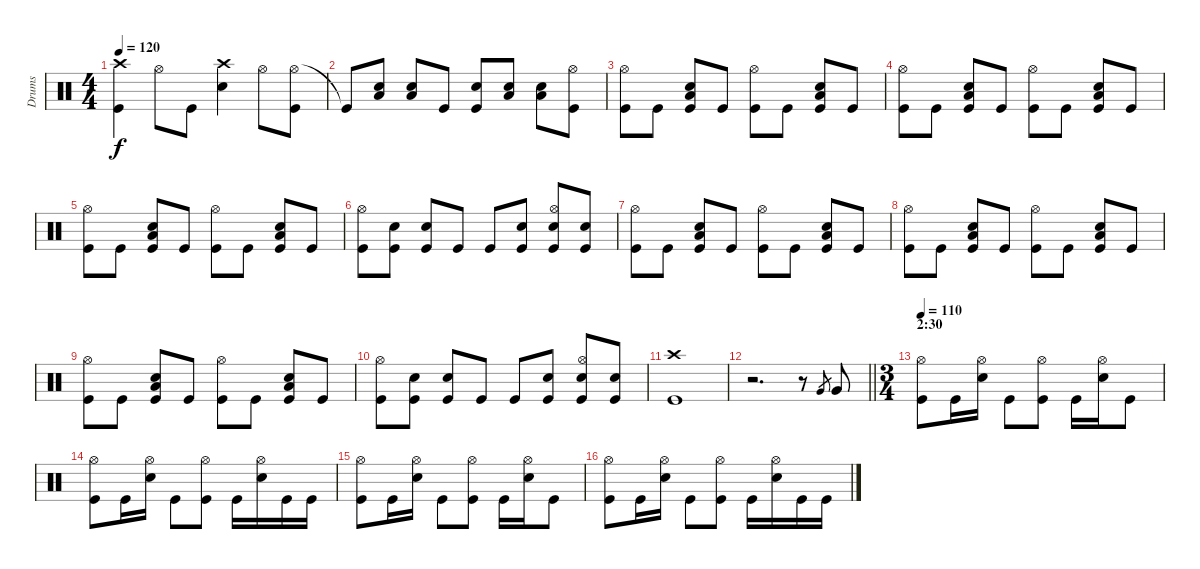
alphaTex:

\track ("Drums" "Drums") {instrument percussion}
\staff {score}
\articulation defaults
\ts (4 4)
\tempo 120
\clef neutral
\ks c
("Crash high (hit)" "Kick (hit)").4{dy f} "Hi-Hat (open)".8 "Kick (hit)".8 ("Crash high (hit)" "Electric Snare (hit)").4 "Hi-Hat (open)".8 ("Hi-Hat (open)" "Kick (hit)").8 |
"Kick (hit)"{t}.8 ("Low Floor Tom (hit)" "Electric Snare (hit)").8 ("Low Floor Tom (hit)" "Electric Snare (hit)").8 "Kick (hit)".8 ("Electric Snare (hit)" "Kick (hit)").8 ("Low Floor Tom (hit)" "Electric Snare (hit)").8 ("Low Floor Tom (hit)" "Electric Snare (hit)").8 ("Hi-Hat (open)" "Kick (hit)").8 |
("Hi-Hat (open)" "Kick (hit)").8 "Kick (hit)".8 ("Low Floor Tom (hit)" "Electric Snare (hit)" "Kick (hit)").8 "Kick (hit)".8 ("Hi-Hat (open)" "Kick (hit)").8 "Kick (hit)".8 ("Low Floor Tom (hit)" "Electric Snare (hit)" "Kick (hit)").8 "Kick (hit)".8 |
("Hi-Hat (open)" "Kick (hit)").8 "Kick (hit)".8 ("Low Floor Tom (hit)" "Electric Snare (hit)" "Kick (hit)").8 "Kick (hit)".8 ("Hi-Hat (open)" "Kick (hit)").8 "Kick (hit)".8 ("Low Floor Tom (hit)" "Electric Snare (hit)" "Kick (hit)").8 "Kick (hit)".8 |
("Hi-Hat (open)" "Kick (hit)").8 "Kick (hit)".8 ("Low Floor Tom (hit)" "Electric Snare (hit)" "Kick (hit)").8 "Kick (hit)".8 ("Hi-Hat (open)" "Kick (hit)").8 "Kick (hit)".8 ("Low Floor Tom (hit)" "Electric Snare (hit)" "Kick (hit)").8 "Kick (hit)".8 |
("Hi-Hat (open)" "Kick (hit)").8 ("Electric Snare (hit)" "Kick (hit)").8 ("Electric Snare (hit)" "Kick (hit)").8 "Kick (hit)".8 "Kick (hit)".8 ("Electric Snare (hit)" "Kick (hit)").8 ("Hi-Hat (open)" "Electric Snare (hit)" "Kick (hit)").8 ("Electric Snare (hit)" "Kick (hit)").8 |
("Hi-Hat (open)" "Kick (hit)").8 "Kick (hit)".8 ("Low Floor Tom (hit)" "Electric Snare (hit)" "Kick (hit)").8 "Kick (hit)".8 ("Hi-Hat (open)" "Kick (hit)").8 "Kick (hit)".8 ("Low Floor Tom (hit)" "Electric Snare (hit)" "Kick (hit)").8 "Kick (hit)".8 |
("Hi-Hat (open)" "Kick (hit)").8 "Kick (hit)".8 ("Low Floor Tom (hit)" "Electric Snare (hit)" "Kick (hit)").8 "Kick (hit)".8 ("Hi-Hat (open)" "Kick (hit)").8 "Kick (hit)".8 ("Low Floor Tom (hit)" "Electric Snare (hit)" "Kick (hit)").8 "Kick (hit)".8 |
("Hi-Hat (open)" "Kick (hit)").8 "Kick (hit)".8 ("Low Floor Tom (hit)" "Electric Snare (hit)" "Kick (hit)").8 "Kick (hit)".8 ("Hi-Hat (open)" "Kick (hit)").8 "Kick (hit)".8 ("Low Floor Tom (hit)" "Electric Snare (hit)" "Kick (hit)").8 "Kick (hit)".8 |
("Hi-Hat (open)" "Kick (hit)").8 ("Electric Snare (hit)" "Kick (hit)").8 ("Electric Snare (hit)" "Kick (hit)").8 "Kick (hit)".8 "Kick (hit)".8 ("Electric Snare (hit)" "Kick (hit)").8 ("Hi-Hat (open)" "Electric Snare (hit)" "Kick (hit)").8 ("Electric Snare (hit)" "Kick (hit)").8 |
("Crash high (hit)" "Kick (hit)").1 |
\barLineRight lightlight
r.2{d} r.8 "Very Low Tom (hit)".8{gr} "Very Low Tom (hit)".8 |
\ts (3 4)
\section ("" "2:30")
\tempo 110
("Hi-Hat (open)" "Kick (hit)").8 "Kick (hit)".16 ("Electric Snare (hit)" "Hi-Hat (open)").16 "Kick (hit)".8 ("Hi-Hat (open)" "Kick (hit)").8 "Kick (hit)".16 ("Electric Snare (hit)" "Hi-Hat (open)").16 "Kick (hit)".8 |
("Hi-Hat (open)" "Kick (hit)").8 "Kick (hit)".16 ("Electric Snare (hit)" "Hi-Hat (open)").16 "Kick (hit)".8 ("Hi-Hat (open)" "Kick (hit)").8 "Kick (hit)".16 ("Electric Snare (hit)" "Hi-Hat (open)").16 "Kick (hit)".16 "Kick (hit)".16 |
("Hi-Hat (open)" "Kick (hit)").8 "Kick (hit)".16 ("Electric Snare (hit)" "Hi-Hat (open)").16 "Kick (hit)".8 ("Hi-Hat (open)" "Kick (hit)").8 "Kick (hit)".16 ("Electric Snare (hit)" "Hi-Hat (open)").16 "Kick (hit)".8 |
("Hi-Hat (open)" "Kick (hit)").8 "Kick (hit)".16 ("Electric Snare (hit)" "Hi-Hat (open)").16 "Kick (hit)".8 ("Hi-Hat (open)" "Kick (hit)").8 "Kick (hit)".16 ("Electric Snare (hit)" "Hi-Hat (open)").16 "Kick (hit)".16 "Kick (hit)".16
